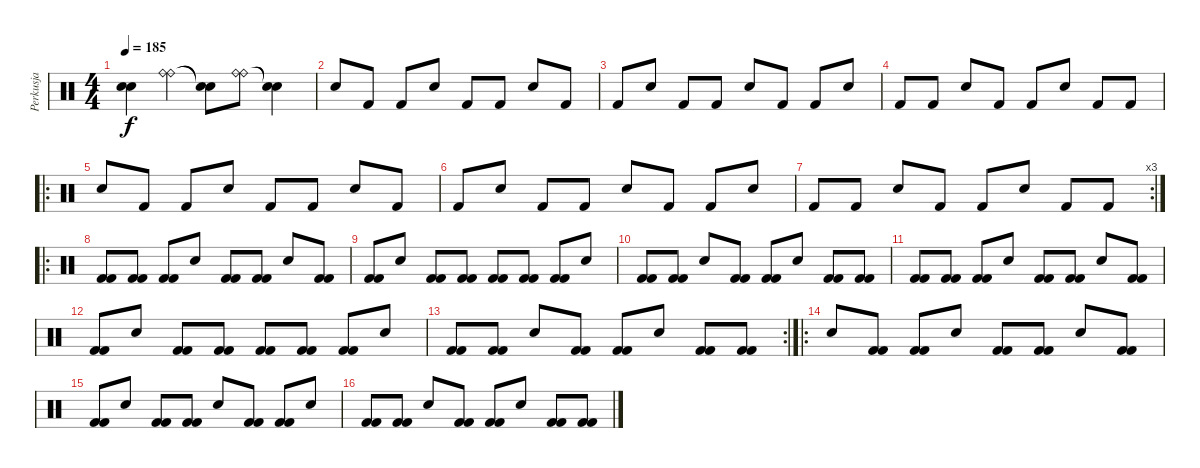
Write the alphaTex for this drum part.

\track ("Perkusja" "Perkusja") {instrument percussion}
\staff {score}
\articulation defaults
\ts (4 4)
\tempo 185
\clef neutral
\ks c
("Snare (hit)"{t} "Snare (hit)"{t}).4{dy f} ("Ride (bell)" "Ride (bell)").4 ("Snare (hit)"{t} "Snare (hit)"{t}).8 ("Ride (bell)" "Ride (bell)").8 ("Snare (hit)"{t} "Snare (hit)"{t}).4 |
"Snare (hit) 2".8 "Kick (hit) 2".8 "Kick (hit) 2".8 "Snare (hit) 2".8 "Kick (hit) 2".8 "Kick (hit) 2".8 "Snare (hit) 2".8 "Kick (hit) 2".8 |
"Kick (hit) 2".8 "Snare (hit) 2".8 "Kick (hit) 2".8 "Kick (hit) 2".8 "Snare (hit) 2".8 "Kick (hit) 2".8 "Kick (hit) 2".8 "Snare (hit) 2".8 |
"Kick (hit) 2".8 "Kick (hit) 2".8 "Snare (hit) 2".8 "Kick (hit) 2".8 "Kick (hit) 2".8 "Snare (hit) 2".8 "Kick (hit) 2".8 "Kick (hit) 2".8 |
\ro "Snare (hit) 2".8 "Kick (hit) 2".8 "Kick (hit) 2".8 "Snare (hit) 2".8 "Kick (hit) 2".8 "Kick (hit) 2".8 "Snare (hit) 2".8 "Kick (hit) 2".8
|
"Kick (hit) 2".8 "Snare (hit) 2".8 "Kick (hit) 2".8 "Kick (hit) 2".8 "Snare (hit) 2".8 "Kick (hit) 2".8 "Kick (hit) 2".8 "Snare (hit) 2".8 |
\rc 3 "Kick (hit) 2".8 "Kick (hit) 2".8 "Snare (hit) 2".8 "Kick (hit) 2".8 "Kick (hit) 2".8 "Snare (hit) 2".8 "Kick (hit) 2".8 "Kick (hit) 2".8
|
\ro
("Kick (hit) 2" "Kick (hit) 2").8 ("Kick (hit) 2" "Kick (hit) 2").8 ("Kick (hit) 2" "Kick (hit) 2").8 "Snare (hit) 2".8 ("Kick (hit) 2" "Kick (hit) 2").8 ("Kick (hit) 2" "Kick (hit) 2").8 "Snare (hit) 2".8 ("Kick (hit) 2" "Kick (hit) 2").8 |
("Kick (hit) 2" "Kick (hit) 2").8 "Snare (hit) 2".8 ("Kick (hit) 2" "Kick (hit) 2").8 ("Kick (hit) 2" "Kick (hit) 2").8 ("Kick (hit) 2" "Kick (hit) 2").8 ("Kick (hit) 2" "Kick (hit) 2").8 ("Kick (hit) 2" "Kick (hit) 2").8 "Snare (hit) 2".8 |
("Kick (hit) 2" "Kick (hit) 2").8 ("Kick (hit) 2" "Kick (hit) 2").8 "Snare (hit) 2".8 ("Kick (hit) 2" "Kick (hit) 2").8 ("Kick (hit) 2" "Kick (hit) 2").8 "Snare (hit) 2".8 ("Kick (hit) 2" "Kick (hit) 2").8 ("Kick (hit) 2" "Kick (hit) 2").8 |
("Kick (hit) 2" "Kick (hit) 2").8 ("Kick (hit) 2" "Kick (hit) 2").8 ("Kick (hit) 2" "Kick (hit) 2").8 "Snare (hit) 2".8 ("Kick (hit) 2" "Kick (hit) 2").8 ("Kick (hit) 2" "Kick (hit) 2").8 "Snare (hit) 2".8 ("Kick (hit) 2" "Kick (hit) 2").8 |
("Kick (hit) 2" "Kick (hit) 2").8 "Snare (hit) 2".8 ("Kick (hit) 2" "Kick (hit) 2").8 ("Kick (hit) 2" "Kick (hit) 2").8 ("Kick (hit) 2" "Kick (hit) 2").8 ("Kick (hit) 2" "Kick (hit) 2").8 ("Kick (hit) 2" "Kick (hit) 2").8 "Snare (hit) 2".8 |
\rc 2
("Kick (hit) 2" "Kick (hit) 2").8 ("Kick (hit) 2" "Kick (hit) 2").8 "Snare (hit) 2".8 ("Kick (hit) 2" "Kick (hit) 2").8 ("Kick (hit) 2" "Kick (hit) 2").8 "Snare (hit) 2".8 ("Kick (hit) 2" "Kick (hit) 2").8 ("Kick (hit) 2" "Kick (hit) 2").8 |
\ro "Snare (hit) 2".8
("Kick (hit) 2" "Kick (hit) 2").8 ("Kick (hit) 2" "Kick (hit) 2").8 "Snare (hit) 2".8 ("Kick (hit) 2" "Kick (hit) 2").8 ("Kick (hit) 2" "Kick (hit) 2").8 "Snare (hit) 2".8 ("Kick (hit) 2" "Kick (hit) 2").8 |
("Kick (hit) 2" "Kick (hit) 2").8 "Snare (hit) 2".8 ("Kick (hit) 2" "Kick (hit) 2").8 ("Kick (hit) 2" "Kick (hit) 2").8 "Snare (hit) 2".8 ("Kick (hit) 2" "Kick (hit) 2").8 ("Kick (hit) 2" "Kick (hit) 2").8 "Snare (hit) 2".8 |
("Kick (hit) 2" "Kick (hit) 2").8 ("Kick (hit) 2" "Kick (hit) 2").8 "Snare (hit) 2".8 ("Kick (hit) 2" "Kick (hit) 2").8 ("Kick (hit) 2" "Kick (hit) 2").8 "Snare (hit) 2".8 ("Kick (hit) 2" "Kick (hit) 2").8 ("Kick (hit) 2" "Kick (hit) 2").8
